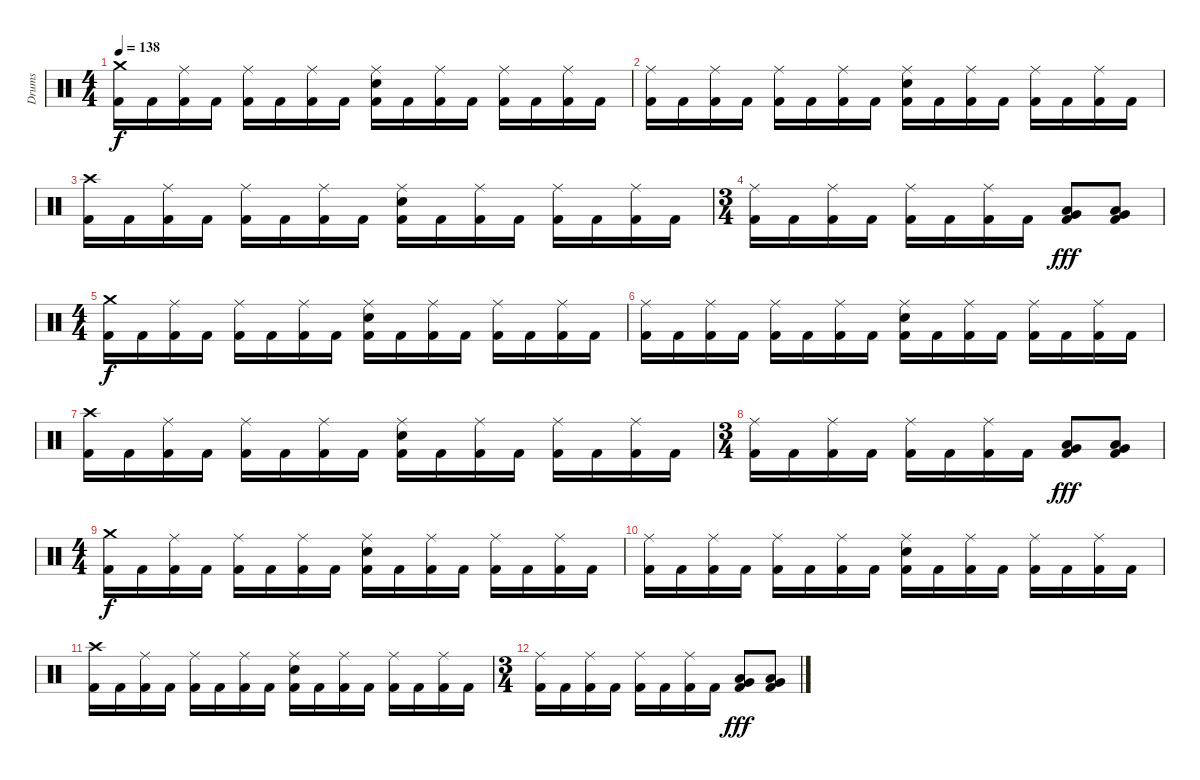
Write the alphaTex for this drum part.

\track ("Drums" "Drums") {instrument percussion}
\staff {score}
\articulation defaults
\ts (4 4)
\tempo 138
\clef neutral
\ks c
("Kick (hit) 2" "Crash medium (hit)").16{dy f} "Kick (hit) 2".16 ("Kick (hit) 2" "Ride (middle)").16 "Kick (hit) 2".16 ("Kick (hit) 2" "Ride (middle)").16 "Kick (hit) 2".16 ("Kick (hit) 2" "Ride (middle)").16 "Kick (hit) 2".16 ("Kick (hit) 2" "Electric Snare (hit)" "Ride (middle)").16 "Kick (hit) 2".16 ("Kick (hit) 2" "Ride (middle)").16 "Kick (hit) 2".16 ("Kick (hit) 2" "Ride (middle)").16 "Kick (hit) 2".16 ("Kick (hit) 2" "Ride (middle)").16 "Kick (hit) 2".16 |
("Kick (hit) 2" "Ride (middle)").16 "Kick (hit) 2".16 ("Kick (hit) 2" "Ride (middle)").16 "Kick (hit) 2".16 ("Kick (hit) 2" "Ride (middle)").16 "Kick (hit) 2".16 ("Kick (hit) 2" "Ride (middle)").16 "Kick (hit) 2".16 ("Kick (hit) 2" "Electric Snare (hit)" "Ride (middle)").16 "Kick (hit) 2".16 ("Kick (hit) 2" "Ride (middle)").16 "Kick (hit) 2".16 ("Kick (hit) 2" "Ride (middle)").16 "Kick (hit) 2".16 ("Kick (hit) 2" "Ride (middle)").16 "Kick (hit) 2".16 |
("Kick (hit) 2" "Crash high (hit)").16 "Kick (hit) 2".16 ("Kick (hit) 2" "Ride (middle)").16 "Kick (hit) 2".16 ("Kick (hit) 2" "Ride (middle)").16 "Kick (hit) 2".16 ("Kick (hit) 2" "Ride (middle)").16 "Kick (hit) 2".16 ("Kick (hit) 2" "Electric Snare (hit)" "Ride (middle)").16 "Kick (hit) 2".16 ("Kick (hit) 2" "Ride (middle)").16 "Kick (hit) 2".16 ("Kick (hit) 2" "Ride (middle)").16 "Kick (hit) 2".16 ("Kick (hit) 2" "Ride (middle)").16 "Kick (hit) 2".16 |
\ts (3 4)
("Kick (hit) 2" "Ride (middle)").16 "Kick (hit) 2".16 ("Kick (hit) 2" "Ride (middle)").16 "Kick (hit) 2".16 ("Kick (hit) 2" "Ride (middle)").16 "Kick (hit) 2".16 ("Kick (hit) 2" "Ride (middle)").16 "Kick (hit) 2".16 ("Kick (hit) 2" "Low Tom (hit)" "Very Low Tom (hit)").8{dy fff} ("Kick (hit) 2" "Low Tom (hit)" "Very Low Tom (hit)").8 |
\ts (4 4)
("Kick (hit) 2" "Crash medium (hit)").16{dy f} "Kick (hit) 2".16 ("Kick (hit) 2" "Ride (middle)").16 "Kick (hit) 2".16 ("Kick (hit) 2" "Ride (middle)").16 "Kick (hit) 2".16 ("Kick (hit) 2" "Ride (middle)").16 "Kick (hit) 2".16 ("Kick (hit) 2" "Electric Snare (hit)" "Ride (middle)").16 "Kick (hit) 2".16 ("Kick (hit) 2" "Ride (middle)").16 "Kick (hit) 2".16 ("Kick (hit) 2" "Ride (middle)").16 "Kick (hit) 2".16 ("Kick (hit) 2" "Ride (middle)").16 "Kick (hit) 2".16 |
("Kick (hit) 2" "Ride (middle)").16 "Kick (hit) 2".16 ("Kick (hit) 2" "Ride (middle)").16 "Kick (hit) 2".16 ("Kick (hit) 2" "Ride (middle)").16 "Kick (hit) 2".16 ("Kick (hit) 2" "Ride (middle)").16 "Kick (hit) 2".16 ("Kick (hit) 2" "Electric Snare (hit)" "Ride (middle)").16 "Kick (hit) 2".16 ("Kick (hit) 2" "Ride (middle)").16 "Kick (hit) 2".16 ("Kick (hit) 2" "Ride (middle)").16 "Kick (hit) 2".16 ("Kick (hit) 2" "Ride (middle)").16 "Kick (hit) 2".16 |
("Kick (hit) 2" "Crash high (hit)").16 "Kick (hit) 2".16 ("Kick (hit) 2" "Ride (middle)").16 "Kick (hit) 2".16 ("Kick (hit) 2" "Ride (middle)").16 "Kick (hit) 2".16 ("Kick (hit) 2" "Ride (middle)").16 "Kick (hit) 2".16 ("Kick (hit) 2" "Electric Snare (hit)" "Ride (middle)").16 "Kick (hit) 2".16 ("Kick (hit) 2" "Ride (middle)").16 "Kick (hit) 2".16 ("Kick (hit) 2" "Ride (middle)").16 "Kick (hit) 2".16 ("Kick (hit) 2" "Ride (middle)").16 "Kick (hit) 2".16 |
\ts (3 4)
("Kick (hit) 2" "Ride (middle)").16 "Kick (hit) 2".16 ("Kick (hit) 2" "Ride (middle)").16 "Kick (hit) 2".16 ("Kick (hit) 2" "Ride (middle)").16 "Kick (hit) 2".16 ("Kick (hit) 2" "Ride (middle)").16 "Kick (hit) 2".16 ("Kick (hit) 2" "Low Tom (hit)" "Very Low Tom (hit)").8{dy fff} ("Kick (hit) 2" "Low Tom (hit)" "Very Low Tom (hit)").8 |
\ts (4 4)
("Kick (hit) 2" "Crash medium (hit)").16{dy f} "Kick (hit) 2".16 ("Kick (hit) 2" "Ride (middle)").16 "Kick (hit) 2".16 ("Kick (hit) 2" "Ride (middle)").16 "Kick (hit) 2".16 ("Kick (hit) 2" "Ride (middle)").16 "Kick (hit) 2".16 ("Kick (hit) 2" "Electric Snare (hit)" "Ride (middle)").16 "Kick (hit) 2".16 ("Kick (hit) 2" "Ride (middle)").16 "Kick (hit) 2".16 ("Kick (hit) 2" "Ride (middle)").16 "Kick (hit) 2".16 ("Kick (hit) 2" "Ride (middle)").16 "Kick (hit) 2".16 |
("Kick (hit) 2" "Ride (middle)").16 "Kick (hit) 2".16 ("Kick (hit) 2" "Ride (middle)").16 "Kick (hit) 2".16 ("Kick (hit) 2" "Ride (middle)").16 "Kick (hit) 2".16 ("Kick (hit) 2" "Ride (middle)").16 "Kick (hit) 2".16 ("Kick (hit) 2" "Electric Snare (hit)" "Ride (middle)").16 "Kick (hit) 2".16 ("Kick (hit) 2" "Ride (middle)").16 "Kick (hit) 2".16 ("Kick (hit) 2" "Ride (middle)").16 "Kick (hit) 2".16 ("Kick (hit) 2" "Ride (middle)").16 "Kick (hit) 2".16 |
("Kick (hit) 2" "Crash high (hit)").16 "Kick (hit) 2".16 ("Kick (hit) 2" "Ride (middle)").16 "Kick (hit) 2".16 ("Kick (hit) 2" "Ride (middle)").16 "Kick (hit) 2".16 ("Kick (hit) 2" "Ride (middle)").16 "Kick (hit) 2".16 ("Kick (hit) 2" "Electric Snare (hit)" "Ride (middle)").16 "Kick (hit) 2".16 ("Kick (hit) 2" "Ride (middle)").16 "Kick (hit) 2".16 ("Kick (hit) 2" "Ride (middle)").16 "Kick (hit) 2".16 ("Kick (hit) 2" "Ride (middle)").16 "Kick (hit) 2".16 |
\ts (3 4)
("Kick (hit) 2" "Ride (middle)").16 "Kick (hit) 2".16 ("Kick (hit) 2" "Ride (middle)").16 "Kick (hit) 2".16 ("Kick (hit) 2" "Ride (middle)").16 "Kick (hit) 2".16 ("Kick (hit) 2" "Ride (middle)").16 "Kick (hit) 2".16 ("Kick (hit) 2" "Low Tom (hit)" "Very Low Tom (hit)").8{dy fff} ("Kick (hit) 2" "Low Tom (hit)" "Very Low Tom (hit)").8
